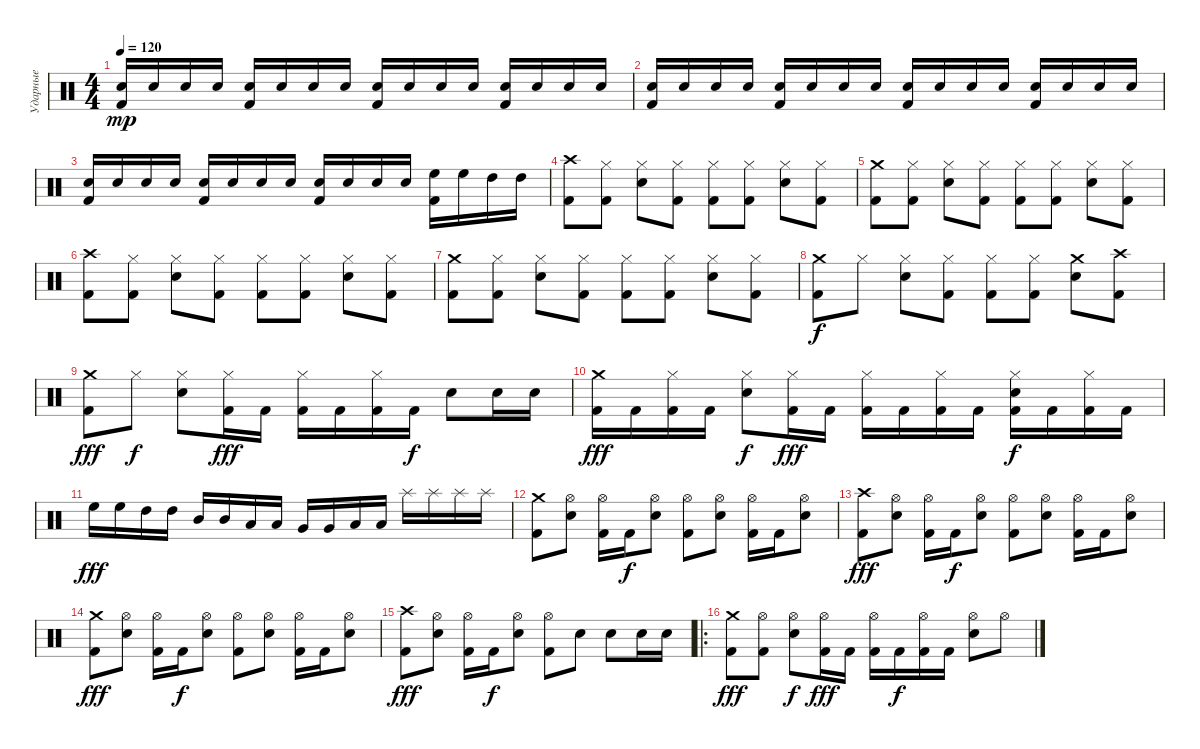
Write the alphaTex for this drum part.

\track ("Ударные" "Ударные") {instrument percussion}
\staff {score}
\articulation defaults
\ts (4 4)
\tempo 120
\clef neutral
\ks c
("Electric Snare (hit)" "Kick (hit) 2").16{dy mp} "Electric Snare (hit)".16 "Electric Snare (hit)".16 "Electric Snare (hit)".16 ("Electric Snare (hit)" "Kick (hit) 2").16 "Electric Snare (hit)".16 "Electric Snare (hit)".16 "Electric Snare (hit)".16 ("Electric Snare (hit)" "Kick (hit) 2").16 "Electric Snare (hit)".16 "Electric Snare (hit)".16 "Electric Snare (hit)".16 ("Electric Snare (hit)" "Kick (hit) 2").16 "Electric Snare (hit)".16 "Electric Snare (hit)".16 "Electric Snare (hit)".16 |
("Electric Snare (hit)" "Kick (hit) 2").16 "Electric Snare (hit)".16 "Electric Snare (hit)".16 "Electric Snare (hit)".16 ("Electric Snare (hit)" "Kick (hit) 2").16 "Electric Snare (hit)".16 "Electric Snare (hit)".16 "Electric Snare (hit)".16 ("Electric Snare (hit)" "Kick (hit) 2").16 "Electric Snare (hit)".16 "Electric Snare (hit)".16 "Electric Snare (hit)".16 ("Electric Snare (hit)" "Kick (hit) 2").16 "Electric Snare (hit)".16 "Electric Snare (hit)".16 "Electric Snare (hit)".16 |
("Electric Snare (hit)" "Kick (hit) 2").16 "Electric Snare (hit)".16 "Electric Snare (hit)".16 "Electric Snare (hit)".16 ("Electric Snare (hit)" "Kick (hit) 2").16 "Electric Snare (hit)".16 "Electric Snare (hit)".16 "Electric Snare (hit)".16 ("Electric Snare (hit)" "Kick (hit) 2").16 "Electric Snare (hit)".16 "Electric Snare (hit)".16 "Electric Snare (hit)".16 ("High Floor Tom (hit)" "Kick (hit) 2").16 "High Floor Tom (hit)".16 "High Tom (hit)".16 "High Tom (hit)".16 |
("Crash high (hit)" "Kick (hit) 2").8 ("Hi-Hat (closed)" "Kick (hit) 2").8 ("Hi-Hat (closed)" "Electric Snare (hit)").8 ("Hi-Hat (closed)" "Kick (hit) 2").8 ("Hi-Hat (closed)" "Kick (hit) 2").8 ("Hi-Hat (closed)" "Kick (hit) 2").8 ("Hi-Hat (closed)" "Electric Snare (hit)").8 ("Hi-Hat (closed)" "Kick (hit) 2").8 |
("Crash medium (hit)" "Kick (hit) 2").8 ("Hi-Hat (closed)" "Kick (hit) 2").8 ("Hi-Hat (closed)" "Electric Snare (hit)").8 ("Hi-Hat (closed)" "Kick (hit) 2").8 ("Hi-Hat (closed)" "Kick (hit) 2").8 ("Hi-Hat (closed)" "Kick (hit) 2").8 ("Hi-Hat (closed)" "Electric Snare (hit)").8 ("Hi-Hat (closed)" "Kick (hit) 2").8 |
("Crash high (hit)" "Kick (hit) 2").8 ("Hi-Hat (closed)" "Kick (hit) 2").8 ("Hi-Hat (closed)" "Electric Snare (hit)").8 ("Hi-Hat (closed)" "Kick (hit) 2").8 ("Hi-Hat (closed)" "Kick (hit) 2").8 ("Hi-Hat (closed)" "Kick (hit) 2").8 ("Hi-Hat (closed)" "Electric Snare (hit)").8 ("Hi-Hat (closed)" "Kick (hit) 2").8 |
("Crash medium (hit)" "Kick (hit) 2").8 ("Hi-Hat (closed)" "Kick (hit) 2").8 ("Hi-Hat (closed)" "Electric Snare (hit)").8 ("Hi-Hat (closed)" "Kick (hit) 2").8 ("Hi-Hat (closed)" "Kick (hit) 2").8 ("Hi-Hat (closed)" "Kick (hit) 2").8 ("Hi-Hat (closed)" "Electric Snare (hit)").8 ("Hi-Hat (closed)" "Kick (hit) 2").8 |
("Kick (hit) 2" "Crash medium (hit)").8{dy f} "Hi-Hat (closed)".8 ("Electric Snare (hit)" "Hi-Hat (closed)").8 ("Kick (hit) 2" "Hi-Hat (closed)").8 ("Kick (hit) 2" "Hi-Hat (closed)").8 ("Kick (hit) 2" "Hi-Hat (closed)").8 ("Electric Snare (hit)" "Crash medium (hit)").8 ("Kick (hit) 2" "Crash high (hit)").8 |
("Kick (hit) 2" "Crash medium (hit)").8{dy fff} "Hi-Hat (closed)".8{dy f} ("Electric Snare (hit)" "Hi-Hat (closed)").8 ("Kick (hit) 2" "Hi-Hat (closed)").16{dy fff} "Kick (hit) 2".16 ("Kick (hit) 2" "Hi-Hat (closed)").16 "Kick (hit) 2".16 ("Kick (hit) 2" "Hi-Hat (closed)").16 "Kick (hit) 2".16{dy f} "Electric Snare (hit)".8 "Electric Snare (hit)".16 "Electric Snare (hit)".16 |
("Kick (hit) 2" "Crash medium (hit)").16{dy fff} "Kick (hit) 2".16 ("Kick (hit) 2" "Hi-Hat (closed)").16 "Kick (hit) 2".16 ("Electric Snare (hit)" "Hi-Hat (closed)").8{dy f} ("Kick (hit) 2" "Hi-Hat (closed)").16{dy fff} "Kick (hit) 2".16 ("Kick (hit) 2" "Hi-Hat (closed)").16 "Kick (hit) 2".16 ("Kick (hit) 2" "Hi-Hat (closed)").16 "Kick (hit) 2".16 ("Kick (hit) 2" "Electric Snare (hit)" "Hi-Hat (closed)").16{dy f} "Kick (hit) 2".16 ("Kick (hit) 2" "Hi-Hat (closed)").16 "Kick (hit) 2".16 |
"High Floor Tom (hit)".16{dy fff} "High Floor Tom (hit)".16 "High Tom (hit)".16 "High Tom (hit)".16 "Mid Tom (hit)".16 "Mid Tom (hit)".16 "Low Tom (hit)".16 "Low Tom (hit)".16 "Very Low Tom (hit)".16 "Very Low Tom (hit)".16 "Low Floor Tom (hit)".16 "Low Floor Tom (hit)".16 "Splash (hit)".16 "Splash (hit)".16 "Splash (hit)".16 "Splash (hit)".16 |
("Crash medium (hit)" "Kick (hit) 2").8 ("Hi-Hat (open)" "Electric Snare (hit)").8 ("Hi-Hat (open)" "Kick (hit) 2").16 "Kick (hit) 2".16{dy f} ("Hi-Hat (open)" "Electric Snare (hit)").8 ("Hi-Hat (open)" "Kick (hit) 2").8 ("Hi-Hat (open)" "Electric Snare (hit)").8 ("Hi-Hat (open)" "Kick (hit) 2").16 "Kick (hit) 2".16 ("Hi-Hat (open)" "Electric Snare (hit)").8 |
("Crash high (hit)" "Kick (hit) 2").8{dy fff} ("Hi-Hat (open)" "Electric Snare (hit)").8 ("Hi-Hat (open)" "Kick (hit) 2").16 "Kick (hit) 2".16{dy f} ("Hi-Hat (open)" "Electric Snare (hit)").8 ("Hi-Hat (open)" "Kick (hit) 2").8 ("Hi-Hat (open)" "Electric Snare (hit)").8 ("Hi-Hat (open)" "Kick (hit) 2").16 "Kick (hit) 2".16 ("Hi-Hat (open)" "Electric Snare (hit)").8 |
("Crash medium (hit)" "Kick (hit) 2").8{dy fff} ("Hi-Hat (open)" "Electric Snare (hit)").8 ("Hi-Hat (open)" "Kick (hit) 2").16 "Kick (hit) 2".16{dy f} ("Hi-Hat (open)" "Electric Snare (hit)").8 ("Hi-Hat (open)" "Kick (hit) 2").8 ("Hi-Hat (open)" "Electric Snare (hit)").8 ("Hi-Hat (open)" "Kick (hit) 2").16 "Kick (hit) 2".16 ("Hi-Hat (open)" "Electric Snare (hit)").8 |
("Crash high (hit)" "Kick (hit) 2").8{dy fff} ("Hi-Hat (open)" "Electric Snare (hit)").8 ("Hi-Hat (open)" "Kick (hit) 2").16 "Kick (hit) 2".16{dy f} ("Hi-Hat (open)" "Electric Snare (hit)").8 ("Hi-Hat (open)" "Kick (hit) 2").8 "Electric Snare (hit)".8 "Electric Snare (hit)".8 "Electric Snare (hit)".16 "Electric Snare (hit)".16 |
\ro
("Kick (hit) 2" "Crash medium (hit)").8{dy fff} ("Kick (hit) 2" "Hi-Hat (open)").8 ("Electric Snare (hit)" "Hi-Hat (open)").8{dy f} ("Kick (hit) 2" "Hi-Hat (open)").16{dy fff} "Kick (hit) 2".16 ("Kick (hit) 2" "Hi-Hat (open)").16 "Kick (hit) 2".16{dy f} ("Kick (hit) 2" "Hi-Hat (open)").16 "Kick (hit) 2".16 ("Electric Snare (hit)" "Hi-Hat (open)").8 "Hi-Hat (open)".8
